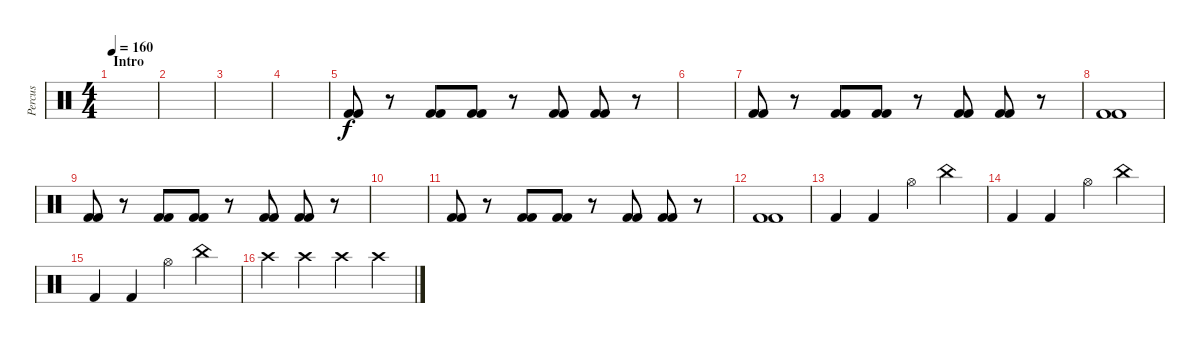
\track ("Percus" "Percus") {instrument percussion}
\staff {score}
\articulation defaults
\ts (4 4)
\section ("" "Intro")
\tempo 160
\clef neutral
\ks c
|
|
|
|
("Kick (hit) 2" "Kick (hit) 2").8 r.8 ("Kick (hit) 2" "Kick (hit) 2").8 ("Kick (hit) 2" "Kick (hit) 2").8 r.8 ("Kick (hit) 2" "Kick (hit) 2").8 ("Kick (hit) 2" "Kick (hit) 2").8 r.8 |
|
("Kick (hit) 2" "Kick (hit) 2").8 r.8 ("Kick (hit) 2" "Kick (hit) 2").8 ("Kick (hit) 2" "Kick (hit) 2").8 r.8 ("Kick (hit) 2" "Kick (hit) 2").8 ("Kick (hit) 2" "Kick (hit) 2").8 r.8 |
("Kick (hit) 2" "Kick (hit) 2").1 |
("Kick (hit) 2" "Kick (hit) 2").8 r.8 ("Kick (hit) 2" "Kick (hit) 2").8 ("Kick (hit) 2" "Kick (hit) 2").8 r.8 ("Kick (hit) 2" "Kick (hit) 2").8 ("Kick (hit) 2" "Kick (hit) 2").8 r.8 |
|
("Kick (hit) 2" "Kick (hit) 2").8 r.8 ("Kick (hit) 2" "Kick (hit) 2").8 ("Kick (hit) 2" "Kick (hit) 2").8 r.8 ("Kick (hit) 2" "Kick (hit) 2").8 ("Kick (hit) 2" "Kick (hit) 2").8 r.8 |
("Kick (hit) 2" "Kick (hit) 2").1 |
"Kick (hit) 2".4 "Kick (hit) 2".4 "Hi-Hat (open)".4 "China (hit)".4 |
"Kick (hit) 2".4 "Kick (hit) 2".4 "Hi-Hat (open)".4 "China (hit)".4 |
"Kick (hit) 2".4 "Kick (hit) 2".4 "Hi-Hat (open)".4 "China (hit)".4 |
"Crash high (hit)".4 "Crash high (hit)".4 "Crash high (hit)".4 "Crash high (hit)".4
